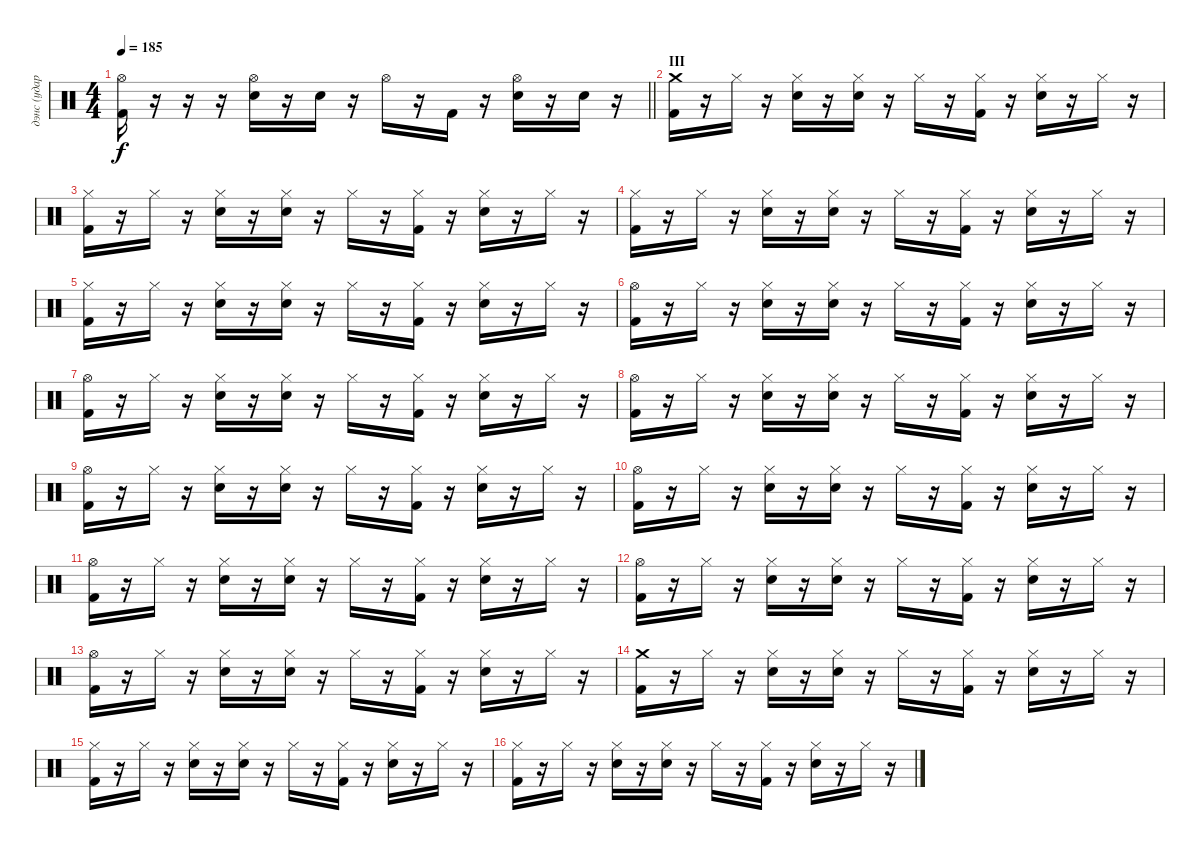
\track ("дэнс (ударные)" "дэнс (удар") {instrument percussion}
\staff {score}
\articulation defaults
\ts (4 4)
\tempo 185
\clef neutral
\barLineRight lightlight
\ks c
("Kick (hit) 2" "Hi-Hat (open)").16{dy f} r.16 r.16 r.16 ("Snare (hit) 2" "Hi-Hat (open)").16 r.16 "Snare (hit) 2".16 r.16 "Hi-Hat (open)".16 r.16 "Kick (hit) 2".16 r.16 ("Snare (hit) 2" "Hi-Hat (open)").16 r.16 "Snare (hit) 2".16 r.16 |
\section ("" "III")
("Kick (hit) 2" "Crash medium (hit)").16 r.16 "Hi-Hat (closed)".16 r.16 ("Snare (hit) 2" "Hi-Hat (closed)").16 r.16 ("Snare (hit) 2" "Hi-Hat (closed)").16 r.16 "Hi-Hat (closed)".16 r.16 ("Kick (hit) 2" "Hi-Hat (closed)").16 r.16 ("Snare (hit) 2" "Hi-Hat (closed)").16 r.16 "Hi-Hat (closed)".16 r.16 |
("Kick (hit) 2" "Hi-Hat (closed)").16 r.16 "Hi-Hat (closed)".16 r.16 ("Snare (hit) 2" "Hi-Hat (closed)").16 r.16 ("Snare (hit) 2" "Hi-Hat (closed)").16 r.16 "Hi-Hat (closed)".16 r.16 ("Kick (hit) 2" "Hi-Hat (closed)").16 r.16 ("Snare (hit) 2" "Hi-Hat (closed)").16 r.16 "Hi-Hat (closed)".16 r.16 |
("Kick (hit) 2" "Hi-Hat (closed)").16 r.16 "Hi-Hat (closed)".16 r.16 ("Snare (hit) 2" "Hi-Hat (closed)").16 r.16 ("Snare (hit) 2" "Hi-Hat (closed)").16 r.16 "Hi-Hat (closed)".16 r.16 ("Kick (hit) 2" "Hi-Hat (closed)").16 r.16 ("Snare (hit) 2" "Hi-Hat (closed)").16 r.16 "Hi-Hat (closed)".16 r.16 |
("Kick (hit) 2" "Hi-Hat (closed)").16 r.16 "Hi-Hat (closed)".16 r.16 ("Snare (hit) 2" "Hi-Hat (closed)").16 r.16 ("Snare (hit) 2" "Hi-Hat (closed)").16 r.16 "Hi-Hat (closed)".16 r.16 ("Kick (hit) 2" "Hi-Hat (closed)").16 r.16 ("Snare (hit) 2" "Hi-Hat (closed)").16 r.16 "Hi-Hat (closed)".16 r.16 |
("Kick (hit) 2" "Hi-Hat (open)").16 r.16 "Hi-Hat (closed)".16 r.16 ("Snare (hit) 2" "Hi-Hat (closed)").16 r.16 ("Snare (hit) 2" "Hi-Hat (closed)").16 r.16 "Hi-Hat (closed)".16 r.16 ("Kick (hit) 2" "Hi-Hat (closed)").16 r.16 ("Snare (hit) 2" "Hi-Hat (closed)").16 r.16 "Hi-Hat (closed)".16 r.16 |
("Kick (hit) 2" "Hi-Hat (open)").16 r.16 "Hi-Hat (closed)".16 r.16 ("Snare (hit) 2" "Hi-Hat (closed)").16 r.16 ("Snare (hit) 2" "Hi-Hat (closed)").16 r.16 "Hi-Hat (closed)".16 r.16 ("Kick (hit) 2" "Hi-Hat (closed)").16 r.16 ("Snare (hit) 2" "Hi-Hat (closed)").16 r.16 "Hi-Hat (closed)".16 r.16 |
("Kick (hit) 2" "Hi-Hat (open)").16 r.16 "Hi-Hat (closed)".16 r.16 ("Snare (hit) 2" "Hi-Hat (closed)").16 r.16 ("Snare (hit) 2" "Hi-Hat (closed)").16 r.16 "Hi-Hat (closed)".16 r.16 ("Kick (hit) 2" "Hi-Hat (closed)").16 r.16 ("Snare (hit) 2" "Hi-Hat (closed)").16 r.16 "Hi-Hat (closed)".16 r.16 |
("Kick (hit) 2" "Hi-Hat (open)").16 r.16 "Hi-Hat (closed)".16 r.16 ("Snare (hit) 2" "Hi-Hat (closed)").16 r.16 ("Snare (hit) 2" "Hi-Hat (closed)").16 r.16 "Hi-Hat (closed)".16 r.16 ("Kick (hit) 2" "Hi-Hat (closed)").16 r.16 ("Snare (hit) 2" "Hi-Hat (closed)").16 r.16 "Hi-Hat (closed)".16 r.16 |
("Kick (hit) 2" "Hi-Hat (open)").16 r.16 "Hi-Hat (closed)".16 r.16 ("Snare (hit) 2" "Hi-Hat (closed)").16 r.16 ("Snare (hit) 2" "Hi-Hat (closed)").16 r.16 "Hi-Hat (closed)".16 r.16 ("Kick (hit) 2" "Hi-Hat (closed)").16 r.16 ("Snare (hit) 2" "Hi-Hat (closed)").16 r.16 "Hi-Hat (closed)".16 r.16 |
("Kick (hit) 2" "Hi-Hat (open)").16 r.16 "Hi-Hat (closed)".16 r.16 ("Snare (hit) 2" "Hi-Hat (closed)").16 r.16 ("Snare (hit) 2" "Hi-Hat (closed)").16 r.16 "Hi-Hat (closed)".16 r.16 ("Kick (hit) 2" "Hi-Hat (closed)").16 r.16 ("Snare (hit) 2" "Hi-Hat (closed)").16 r.16 "Hi-Hat (closed)".16 r.16 |
("Kick (hit) 2" "Hi-Hat (open)").16 r.16 "Hi-Hat (closed)".16 r.16 ("Snare (hit) 2" "Hi-Hat (closed)").16 r.16 ("Snare (hit) 2" "Hi-Hat (closed)").16 r.16 "Hi-Hat (closed)".16 r.16 ("Kick (hit) 2" "Hi-Hat (closed)").16 r.16 ("Snare (hit) 2" "Hi-Hat (closed)").16 r.16 "Hi-Hat (closed)".16 r.16 |
("Kick (hit) 2" "Hi-Hat (open)").16 r.16 "Hi-Hat (closed)".16 r.16 ("Snare (hit) 2" "Hi-Hat (closed)").16 r.16 ("Snare (hit) 2" "Hi-Hat (closed)").16 r.16 "Hi-Hat (closed)".16 r.16 ("Kick (hit) 2" "Hi-Hat (closed)").16 r.16 ("Snare (hit) 2" "Hi-Hat (closed)").16 r.16 "Hi-Hat (closed)".16 r.16 |
("Kick (hit) 2" "Crash medium (hit)").16 r.16 "Hi-Hat (closed)".16 r.16 ("Snare (hit) 2" "Hi-Hat (closed)").16 r.16 ("Snare (hit) 2" "Hi-Hat (closed)").16 r.16 "Hi-Hat (closed)".16 r.16 ("Kick (hit) 2" "Hi-Hat (closed)").16 r.16 ("Snare (hit) 2" "Hi-Hat (closed)").16 r.16 "Hi-Hat (closed)".16 r.16 |
("Kick (hit) 2" "Hi-Hat (closed)").16 r.16 "Hi-Hat (closed)".16 r.16 ("Snare (hit) 2" "Hi-Hat (closed)").16 r.16 ("Snare (hit) 2" "Hi-Hat (closed)").16 r.16 "Hi-Hat (closed)".16 r.16 ("Kick (hit) 2" "Hi-Hat (closed)").16 r.16 ("Snare (hit) 2" "Hi-Hat (closed)").16 r.16 "Hi-Hat (closed)".16 r.16 |
("Kick (hit) 2" "Hi-Hat (closed)").16 r.16 "Hi-Hat (closed)".16 r.16 ("Snare (hit) 2" "Hi-Hat (closed)").16 r.16 ("Snare (hit) 2" "Hi-Hat (closed)").16 r.16 "Hi-Hat (closed)".16 r.16 ("Kick (hit) 2" "Hi-Hat (closed)").16 r.16 ("Snare (hit) 2" "Hi-Hat (closed)").16 r.16 "Hi-Hat (closed)".16 r.16
